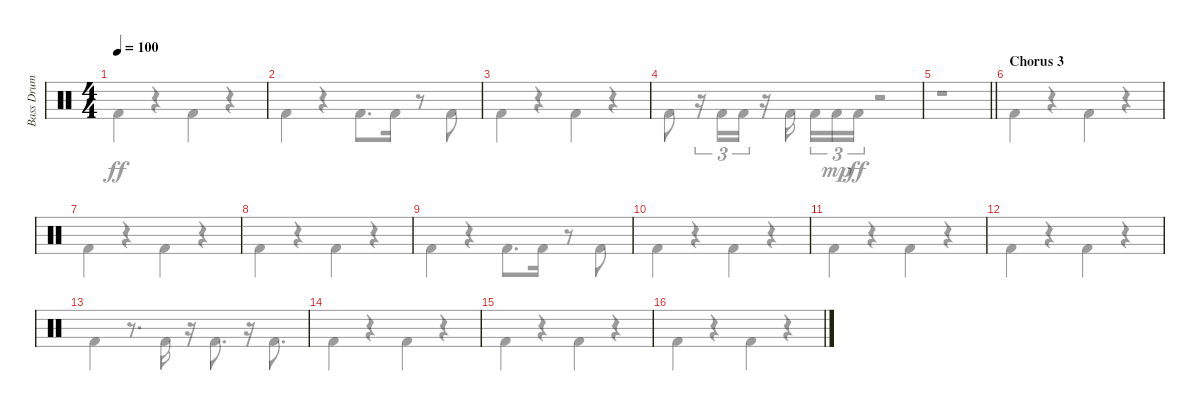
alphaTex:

\track ("Bass Drum" "Bass Drum") {instrument percussion}
\staff {score}
\articulation defaults
\voice
\ts (4 4)
\tempo 100
\clef neutral
\ks c
|
|
|
|
\barLineRight lightlight
\ks aminor
|
\section ("" "Chorus 3")
\ks c
|
|
|
|
|
|
|
|
|
|
\voice
\clef neutral
\ks c "Kick (hit) 2".4{dy ff}
r.4 "Kick (hit) 2".4 r.4 |
"Kick (hit) 2".4 r.4 "Kick (hit) 2".8{d} "Kick (hit) 2".16 r.8 "Kick (hit) 2".8 |
"Kick (hit) 2".4 r.4 "Kick (hit) 2".4 r.4 |
"Kick (hit) 2".8 r.16{tu (3 2)} "Kick (hit) 2".16{tu (3 2)} "Kick (hit) 2".16{tu (3 2)} r.16 "Kick (hit) 2".16{beam splitsecondary} "Kick (hit) 2".16{tu (3 2)} "Kick (hit) 2".16{tu (3 2) dy mp} "Kick (hit) 2".16{tu (3 2) dy ff} r.2 |
\barLineRight lightlight
\ks aminor
r.1 |
\ks c "Kick (hit) 2".4
r.4 "Kick (hit) 2".4 r.4 |
"Kick (hit) 2".4 r.4 "Kick (hit) 2".4 r.4 |
"Kick (hit) 2".4 r.4 "Kick (hit) 2".4 r.4 |
"Kick (hit) 2".4 r.4 "Kick (hit) 2".8{d} "Kick (hit) 2".16 r.8 "Kick (hit) 2".8 |
"Kick (hit) 2".4 r.4 "Kick (hit) 2".4 r.4 |
"Kick (hit) 2".4 r.4 "Kick (hit) 2".4 r.4 |
"Kick (hit) 2".4 r.4 "Kick (hit) 2".4 r.4 |
"Kick (hit) 2".4 r.8{d} "Kick (hit) 2".16 r.16 "Kick (hit) 2".8{d} r.16 "Kick (hit) 2".8{d} |
"Kick (hit) 2".4 r.4 "Kick (hit) 2".4 r.4 |
"Kick (hit) 2".4 r.4 "Kick (hit) 2".4 r.4 |
"Kick (hit) 2".4 r.4 "Kick (hit) 2".4 r.4
